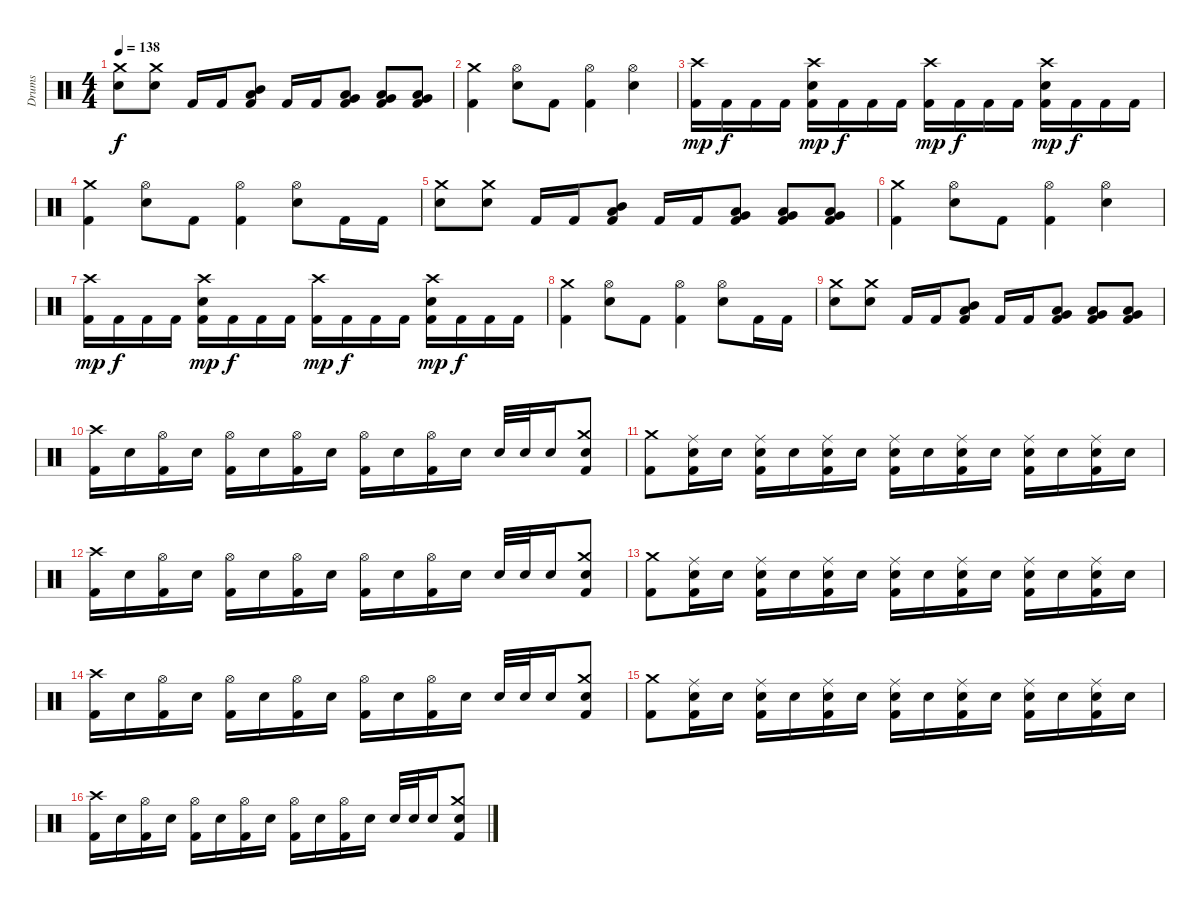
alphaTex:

\track ("Drums" "Drums") {instrument percussion}
\staff {score}
\articulation defaults
\ts (4 4)
\tempo 138
\clef neutral
\ks c
("Electric Snare (hit)" "Crash medium (hit)").8{dy f} ("Electric Snare (hit)" "Crash medium (hit)").8 "Kick (hit) 2".16 "Kick (hit) 2".16 ("Kick (hit) 2" "Mid Tom (hit)" "Low Tom (hit)").8 "Kick (hit) 2".16 "Kick (hit) 2".16 ("Kick (hit) 2" "Low Tom (hit)" "Very Low Tom (hit)").8 ("Kick (hit) 2" "Very Low Tom (hit)" "Low Floor Tom (hit)").8 ("Kick (hit) 2" "Very Low Tom (hit)" "Low Floor Tom (hit)").8 |
("Kick (hit) 2" "Crash medium (hit)").4 ("Electric Snare (hit)" "Hi-Hat (open)").8 "Kick (hit) 2".8 ("Kick (hit) 2" "Hi-Hat (open)").4 ("Electric Snare (hit)" "Hi-Hat (open)").4 |
("Kick (hit) 2" "Crash high (hit)").16{dy mp} "Kick (hit) 2".16{dy f} "Kick (hit) 2".16 "Kick (hit) 2".16 ("Kick (hit) 2" "Electric Snare (hit)" "Crash high (hit)").16{dy mp} "Kick (hit) 2".16{dy f} "Kick (hit) 2".16 "Kick (hit) 2".16 ("Kick (hit) 2" "Crash high (hit)").16{dy mp} "Kick (hit) 2".16{dy f} "Kick (hit) 2".16 "Kick (hit) 2".16 ("Kick (hit) 2" "Electric Snare (hit)" "Crash high (hit)").16{dy mp} "Kick (hit) 2".16{dy f} "Kick (hit) 2".16 "Kick (hit) 2".16 |
("Kick (hit) 2" "Crash medium (hit)").4 ("Electric Snare (hit)" "Hi-Hat (open)").8 "Kick (hit) 2".8 ("Kick (hit) 2" "Hi-Hat (open)").4 ("Electric Snare (hit)" "Hi-Hat (open)").8 "Kick (hit) 2".16 "Kick (hit) 2".16 |
("Electric Snare (hit)" "Crash medium (hit)").8 ("Electric Snare (hit)" "Crash medium (hit)").8 "Kick (hit) 2".16 "Kick (hit) 2".16 ("Kick (hit) 2" "Mid Tom (hit)" "Low Tom (hit)").8 "Kick (hit) 2".16 "Kick (hit) 2".16 ("Kick (hit) 2" "Low Tom (hit)" "Very Low Tom (hit)").8 ("Kick (hit) 2" "Very Low Tom (hit)" "Low Floor Tom (hit)").8 ("Kick (hit) 2" "Very Low Tom (hit)" "Low Floor Tom (hit)").8 |
("Kick (hit) 2" "Crash medium (hit)").4 ("Electric Snare (hit)" "Hi-Hat (open)").8 "Kick (hit) 2".8 ("Kick (hit) 2" "Hi-Hat (open)").4 ("Electric Snare (hit)" "Hi-Hat (open)").4 |
("Kick (hit) 2" "Crash high (hit)").16{dy mp} "Kick (hit) 2".16{dy f} "Kick (hit) 2".16 "Kick (hit) 2".16 ("Kick (hit) 2" "Electric Snare (hit)" "Crash high (hit)").16{dy mp} "Kick (hit) 2".16{dy f} "Kick (hit) 2".16 "Kick (hit) 2".16 ("Kick (hit) 2" "Crash high (hit)").16{dy mp} "Kick (hit) 2".16{dy f} "Kick (hit) 2".16 "Kick (hit) 2".16 ("Kick (hit) 2" "Electric Snare (hit)" "Crash high (hit)").16{dy mp} "Kick (hit) 2".16{dy f} "Kick (hit) 2".16 "Kick (hit) 2".16 |
("Kick (hit) 2" "Crash medium (hit)").4 ("Electric Snare (hit)" "Hi-Hat (open)").8 "Kick (hit) 2".8 ("Kick (hit) 2" "Hi-Hat (open)").4 ("Electric Snare (hit)" "Hi-Hat (open)").8 "Kick (hit) 2".16 "Kick (hit) 2".16 |
("Electric Snare (hit)" "Crash medium (hit)").8 ("Electric Snare (hit)" "Crash medium (hit)").8 "Kick (hit) 2".16 "Kick (hit) 2".16 ("Kick (hit) 2" "Mid Tom (hit)" "Low Tom (hit)").8 "Kick (hit) 2".16 "Kick (hit) 2".16 ("Kick (hit) 2" "Low Tom (hit)" "Very Low Tom (hit)").8 ("Kick (hit) 2" "Very Low Tom (hit)" "Low Floor Tom (hit)").8 ("Kick (hit) 2" "Very Low Tom (hit)" "Low Floor Tom (hit)").8 |
("Kick (hit) 2" "Crash high (hit)").16 "Electric Snare (hit)".16 ("Kick (hit) 2" "Hi-Hat (open)").16 "Electric Snare (hit)".16 ("Kick (hit) 2" "Hi-Hat (open)").16 "Electric Snare (hit)".16 ("Kick (hit) 2" "Hi-Hat (open)").16 "Electric Snare (hit)".16 ("Kick (hit) 2" "Hi-Hat (open)").16 "Electric Snare (hit)".16 ("Kick (hit) 2" "Hi-Hat (open)").16 "Electric Snare (hit)".16 "Electric Snare (hit)".32 "Electric Snare (hit)".32 "Electric Snare (hit)".16 ("Kick (hit) 2" "Electric Snare (hit)" "Crash medium (hit)").8 |
("Kick (hit) 2" "Crash medium (hit)").8 ("Kick (hit) 2" "Electric Snare (hit)" "Ride (middle)").16 "Electric Snare (hit)".16 ("Kick (hit) 2" "Electric Snare (hit)" "Ride (middle)").16 "Electric Snare (hit)".16 ("Kick (hit) 2" "Electric Snare (hit)" "Ride (middle)").16 "Electric Snare (hit)".16 ("Kick (hit) 2" "Electric Snare (hit)" "Ride (middle)").16 "Electric Snare (hit)".16 ("Kick (hit) 2" "Electric Snare (hit)" "Ride (middle)").16 "Electric Snare (hit)".16 ("Kick (hit) 2" "Electric Snare (hit)" "Ride (middle)").16 "Electric Snare (hit)".16 ("Kick (hit) 2" "Electric Snare (hit)" "Ride (middle)").16 "Electric Snare (hit)".16 |
("Kick (hit) 2" "Crash high (hit)").16 "Electric Snare (hit)".16 ("Kick (hit) 2" "Hi-Hat (open)").16 "Electric Snare (hit)".16 ("Kick (hit) 2" "Hi-Hat (open)").16 "Electric Snare (hit)".16 ("Kick (hit) 2" "Hi-Hat (open)").16 "Electric Snare (hit)".16 ("Kick (hit) 2" "Hi-Hat (open)").16 "Electric Snare (hit)".16 ("Kick (hit) 2" "Hi-Hat (open)").16 "Electric Snare (hit)".16 "Electric Snare (hit)".32 "Electric Snare (hit)".32 "Electric Snare (hit)".16 ("Kick (hit) 2" "Electric Snare (hit)" "Crash medium (hit)").8 |
("Kick (hit) 2" "Crash medium (hit)").8 ("Kick (hit) 2" "Electric Snare (hit)" "Ride (middle)").16 "Electric Snare (hit)".16 ("Kick (hit) 2" "Electric Snare (hit)" "Ride (middle)").16 "Electric Snare (hit)".16 ("Kick (hit) 2" "Electric Snare (hit)" "Ride (middle)").16 "Electric Snare (hit)".16 ("Kick (hit) 2" "Electric Snare (hit)" "Ride (middle)").16 "Electric Snare (hit)".16 ("Kick (hit) 2" "Electric Snare (hit)" "Ride (middle)").16 "Electric Snare (hit)".16 ("Kick (hit) 2" "Electric Snare (hit)" "Ride (middle)").16 "Electric Snare (hit)".16 ("Kick (hit) 2" "Electric Snare (hit)" "Ride (middle)").16 "Electric Snare (hit)".16 |
("Kick (hit) 2" "Crash high (hit)").16 "Electric Snare (hit)".16 ("Kick (hit) 2" "Hi-Hat (open)").16 "Electric Snare (hit)".16 ("Kick (hit) 2" "Hi-Hat (open)").16 "Electric Snare (hit)".16 ("Kick (hit) 2" "Hi-Hat (open)").16 "Electric Snare (hit)".16 ("Kick (hit) 2" "Hi-Hat (open)").16 "Electric Snare (hit)".16 ("Kick (hit) 2" "Hi-Hat (open)").16 "Electric Snare (hit)".16 "Electric Snare (hit)".32 "Electric Snare (hit)".32 "Electric Snare (hit)".16 ("Kick (hit) 2" "Electric Snare (hit)" "Crash medium (hit)").8 |
("Kick (hit) 2" "Crash medium (hit)").8 ("Kick (hit) 2" "Electric Snare (hit)" "Ride (middle)").16 "Electric Snare (hit)".16 ("Kick (hit) 2" "Electric Snare (hit)" "Ride (middle)").16 "Electric Snare (hit)".16 ("Kick (hit) 2" "Electric Snare (hit)" "Ride (middle)").16 "Electric Snare (hit)".16 ("Kick (hit) 2" "Electric Snare (hit)" "Ride (middle)").16 "Electric Snare (hit)".16 ("Kick (hit) 2" "Electric Snare (hit)" "Ride (middle)").16 "Electric Snare (hit)".16 ("Kick (hit) 2" "Electric Snare (hit)" "Ride (middle)").16 "Electric Snare (hit)".16 ("Kick (hit) 2" "Electric Snare (hit)" "Ride (middle)").16 "Electric Snare (hit)".16 |
("Kick (hit) 2" "Crash high (hit)").16 "Electric Snare (hit)".16 ("Kick (hit) 2" "Hi-Hat (open)").16 "Electric Snare (hit)".16 ("Kick (hit) 2" "Hi-Hat (open)").16 "Electric Snare (hit)".16 ("Kick (hit) 2" "Hi-Hat (open)").16 "Electric Snare (hit)".16 ("Kick (hit) 2" "Hi-Hat (open)").16 "Electric Snare (hit)".16 ("Kick (hit) 2" "Hi-Hat (open)").16 "Electric Snare (hit)".16 "Electric Snare (hit)".32 "Electric Snare (hit)".32 "Electric Snare (hit)".16 ("Kick (hit) 2" "Electric Snare (hit)" "Crash medium (hit)").8
